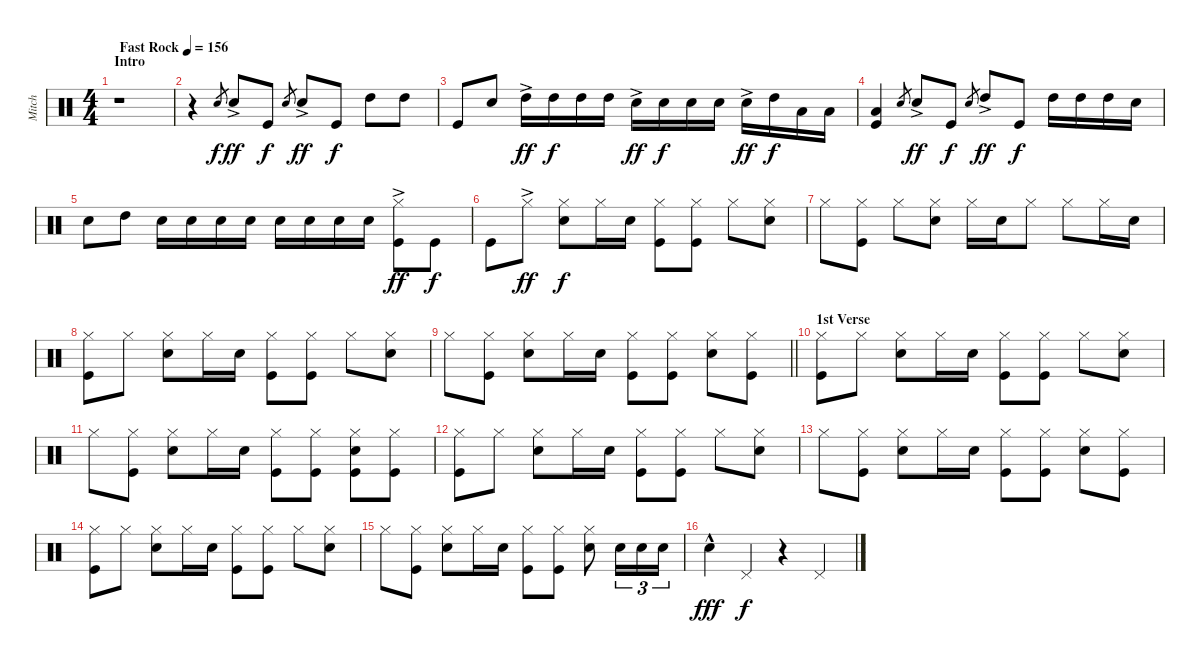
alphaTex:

\track ("Mitch" "Mitch") {instrument percussion}
\staff {score}
\articulation defaults
\ts (4 4)
\section ("" "Intro")
\tempo (156 "Fast Rock")
\clef neutral
\ks c
r.1{dy f} |
r.4 "Snare (hit) 2".8{gr} "Snare (hit) 2"{ac}.8{dy ff} "Kick (hit)".8{dy f} "Snare (hit) 2".8{gr} "Snare (hit) 2"{ac}.8{dy ff} "Kick (hit)".8{dy f} "High Tom (hit)".8 "High Tom (hit)".8 |
"Kick (hit)".8 "Snare (hit) 2".8 "High Tom (hit)"{ac}.16{dy ff} "High Tom (hit)".16{dy f} "High Tom (hit)".16 "High Tom (hit)".16 "Snare (hit) 2"{ac}.16{dy ff} "Snare (hit) 2".16{dy f} "Snare (hit) 2".16 "Snare (hit) 2".16 "Snare (hit) 2"{ac}.16{dy ff} "High Tom (hit)".16{dy f} "Low Tom (hit)".16 "Low Tom (hit)".16 |
("Low Floor Tom (hit)" "Kick (hit)").4 "Snare (hit) 2".8{gr} "Snare (hit) 2"{ac}.8{dy ff} "Kick (hit)".8{dy f} "Snare (hit) 2".8{gr} "High Tom (hit)"{ac}.8{dy ff} "Kick (hit)".8{dy f} "High Tom (hit)".16 "High Tom (hit)".16 "High Tom (hit)".16 "Snare (hit) 2".16 |
"Snare (hit) 2".8 "High Tom (hit)".8 "Snare (hit) 2".16 "Snare (hit) 2".16 "Snare (hit) 2".16 "Snare (hit) 2".16 "Snare (hit) 2".16 "Snare (hit) 2".16 "Snare (hit) 2".16 "Snare (hit) 2".16 ("Hi-Hat (closed)"{ac} "Kick (hit)").8{dy ff} "Kick (hit)".8{dy f} |
"Kick (hit)".8 "Hi-Hat (closed)"{ac}.8{dy ff} ("Hi-Hat (closed)" "Snare (hit) 2").8{dy f} "Hi-Hat (closed)".16 "Snare (hit) 2".16 ("Hi-Hat (closed)" "Kick (hit)").8 ("Hi-Hat (closed)" "Kick (hit)").8 "Hi-Hat (closed)".8 ("Hi-Hat (closed)" "Snare (hit) 2").8 |
"Hi-Hat (closed)".8 ("Hi-Hat (closed)" "Kick (hit)").8 "Hi-Hat (closed)".8 ("Hi-Hat (closed)" "Snare (hit) 2").8 "Hi-Hat (closed)".16 "Snare (hit) 2".16 "Hi-Hat (closed)".8 "Hi-Hat (closed)".8 "Hi-Hat (closed)".16 "Snare (hit) 2".16 |
("Hi-Hat (closed)" "Kick (hit)").8 "Hi-Hat (closed)".8 ("Hi-Hat (closed)" "Snare (hit) 2").8 "Hi-Hat (closed)".16 "Snare (hit) 2".16 ("Hi-Hat (closed)" "Kick (hit)").8 ("Hi-Hat (closed)" "Kick (hit)").8 "Hi-Hat (closed)".8 ("Hi-Hat (closed)" "Snare (hit) 2").8 |
\barLineRight lightlight "Hi-Hat (closed)".8
("Hi-Hat (closed)" "Kick (hit)").8 ("Hi-Hat (closed)" "Snare (hit) 2").8 "Hi-Hat (closed)".16 "Snare (hit) 2".16 ("Hi-Hat (closed)" "Kick (hit)").8 ("Hi-Hat (closed)" "Kick (hit)").8 ("Hi-Hat (closed)" "Snare (hit) 2").8 ("Hi-Hat (closed)" "Kick (hit)").8 |
\section ("" "1st Verse")
("Hi-Hat (closed)" "Kick (hit)").8 "Hi-Hat (closed)".8 ("Hi-Hat (closed)" "Snare (hit) 2").8 "Hi-Hat (closed)".16 "Snare (hit) 2".16 ("Hi-Hat (closed)" "Kick (hit)").8 ("Hi-Hat (closed)" "Kick (hit)").8 "Hi-Hat (closed)".8 ("Hi-Hat (closed)" "Snare (hit) 2").8 |
"Hi-Hat (closed)".8 ("Hi-Hat (closed)" "Kick (hit)").8 ("Hi-Hat (closed)" "Snare (hit) 2").8 "Hi-Hat (closed)".16 "Snare (hit) 2".16 ("Hi-Hat (closed)" "Kick (hit)").8 ("Hi-Hat (closed)" "Kick (hit)").8 ("Hi-Hat (closed)" "Snare (hit) 2" "Kick (hit)").8 ("Hi-Hat (closed)" "Kick (hit)").8 |
("Hi-Hat (closed)" "Kick (hit)").8 "Hi-Hat (closed)".8 ("Hi-Hat (closed)" "Snare (hit) 2").8 "Hi-Hat (closed)".16 "Snare (hit) 2".16 ("Hi-Hat (closed)" "Kick (hit)").8 ("Hi-Hat (closed)" "Kick (hit)").8 "Hi-Hat (closed)".8 ("Hi-Hat (closed)" "Snare (hit) 2").8 |
"Hi-Hat (closed)".8 ("Hi-Hat (closed)" "Kick (hit)").8 ("Hi-Hat (closed)" "Snare (hit) 2").8 "Hi-Hat (closed)".16 "Snare (hit) 2".16 ("Hi-Hat (closed)" "Kick (hit)").8 ("Hi-Hat (closed)" "Kick (hit)").8 ("Hi-Hat (closed)" "Snare (hit) 2").8 ("Hi-Hat (closed)" "Kick (hit)").8 |
("Hi-Hat (closed)" "Kick (hit)").8 "Hi-Hat (closed)".8 ("Hi-Hat (closed)" "Snare (hit) 2").8 "Hi-Hat (closed)".16 "Snare (hit) 2".16 ("Hi-Hat (closed)" "Kick (hit)").8 ("Hi-Hat (closed)" "Kick (hit)").8 "Hi-Hat (closed)".8 ("Hi-Hat (closed)" "Snare (hit) 2").8 |
"Hi-Hat (closed)".8 ("Hi-Hat (closed)" "Kick (hit)").8 ("Hi-Hat (closed)" "Snare (hit) 2").8 "Hi-Hat (closed)".16 "Snare (hit) 2".16 ("Hi-Hat (closed)" "Kick (hit)").8 ("Hi-Hat (closed)" "Kick (hit)").8 ("Hi-Hat (closed)" "Snare (hit) 2").8 "Snare (hit) 2".16{tu (3 2)} "Snare (hit) 2".16{tu (3 2)} "Snare (hit) 2".16{tu (3 2)} |
"Snare (hit) 2"{hac}.4{dy fff} "Pedal Hi-Hat (hit)".4{dy f} r.4 "Pedal Hi-Hat (hit)".4
